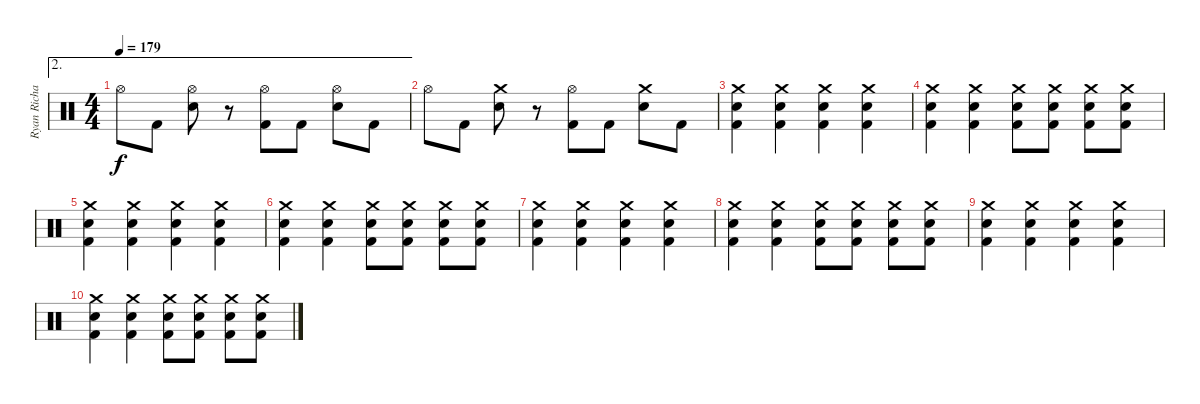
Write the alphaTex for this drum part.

\track ("Ryan Richards" "Ryan Richa") {instrument percussion}
\staff {score}
\articulation defaults
\ae 2
\ts (4 4)
\tempo 179
\clef neutral
\ks c "Hi-Hat (open)".8{dy f} "Kick (hit) 2".8
("Hi-Hat (open)" "Snare (hit) 2").8 r.8 ("Hi-Hat (open)" "Kick (hit) 2").8 "Kick (hit) 2".8 ("Hi-Hat (open)" "Snare (hit) 2").8 "Kick (hit) 2".8 |
"Hi-Hat (open)".8 "Kick (hit) 2".8 ("Crash medium (hit)" "Snare (hit) 2").8 r.8 ("Hi-Hat (open)" "Kick (hit) 2").8 "Kick (hit) 2".8 ("Crash medium (hit)" "Snare (hit) 2").8 "Kick (hit) 2".8 |
("Crash medium (hit)" "Snare (hit) 2" "Kick (hit) 2").4 ("Crash medium (hit)" "Snare (hit) 2" "Kick (hit) 2").4 ("Crash medium (hit)" "Snare (hit) 2" "Kick (hit) 2").4 ("Crash medium (hit)" "Snare (hit) 2" "Kick (hit) 2").4 |
("Crash medium (hit)" "Snare (hit) 2" "Kick (hit) 2").4 ("Crash medium (hit)" "Snare (hit) 2" "Kick (hit) 2").4 ("Crash medium (hit)" "Snare (hit) 2" "Kick (hit) 2").8 ("Crash medium (hit)" "Snare (hit) 2" "Kick (hit) 2").8 ("Crash medium (hit)" "Snare (hit) 2" "Kick (hit) 2").8 ("Crash medium (hit)" "Snare (hit) 2" "Kick (hit) 2").8 |
("Crash medium (hit)" "Snare (hit) 2" "Kick (hit) 2").4 ("Crash medium (hit)" "Snare (hit) 2" "Kick (hit) 2").4 ("Crash medium (hit)" "Snare (hit) 2" "Kick (hit) 2").4 ("Crash medium (hit)" "Snare (hit) 2" "Kick (hit) 2").4 |
("Crash medium (hit)" "Snare (hit) 2" "Kick (hit) 2").4 ("Crash medium (hit)" "Snare (hit) 2" "Kick (hit) 2").4 ("Crash medium (hit)" "Snare (hit) 2" "Kick (hit) 2").8 ("Crash medium (hit)" "Snare (hit) 2" "Kick (hit) 2").8 ("Crash medium (hit)" "Snare (hit) 2" "Kick (hit) 2").8 ("Crash medium (hit)" "Snare (hit) 2" "Kick (hit) 2").8 |
("Crash medium (hit)" "Snare (hit) 2" "Kick (hit) 2").4 ("Crash medium (hit)" "Snare (hit) 2" "Kick (hit) 2").4 ("Crash medium (hit)" "Snare (hit) 2" "Kick (hit) 2").4 ("Crash medium (hit)" "Snare (hit) 2" "Kick (hit) 2").4 |
("Crash medium (hit)" "Snare (hit) 2" "Kick (hit) 2").4 ("Crash medium (hit)" "Snare (hit) 2" "Kick (hit) 2").4 ("Crash medium (hit)" "Snare (hit) 2" "Kick (hit) 2").8 ("Crash medium (hit)" "Snare (hit) 2" "Kick (hit) 2").8 ("Crash medium (hit)" "Snare (hit) 2" "Kick (hit) 2").8 ("Crash medium (hit)" "Snare (hit) 2" "Kick (hit) 2").8 |
("Crash medium (hit)" "Snare (hit) 2" "Kick (hit) 2").4 ("Crash medium (hit)" "Snare (hit) 2" "Kick (hit) 2").4 ("Crash medium (hit)" "Snare (hit) 2" "Kick (hit) 2").4 ("Crash medium (hit)" "Snare (hit) 2" "Kick (hit) 2").4 |
("Crash medium (hit)" "Snare (hit) 2" "Kick (hit) 2").4 ("Crash medium (hit)" "Snare (hit) 2" "Kick (hit) 2").4 ("Crash medium (hit)" "Snare (hit) 2" "Kick (hit) 2").8 ("Crash medium (hit)" "Snare (hit) 2" "Kick (hit) 2").8 ("Crash medium (hit)" "Snare (hit) 2" "Kick (hit) 2").8 ("Crash medium (hit)" "Snare (hit) 2" "Kick (hit) 2").8
